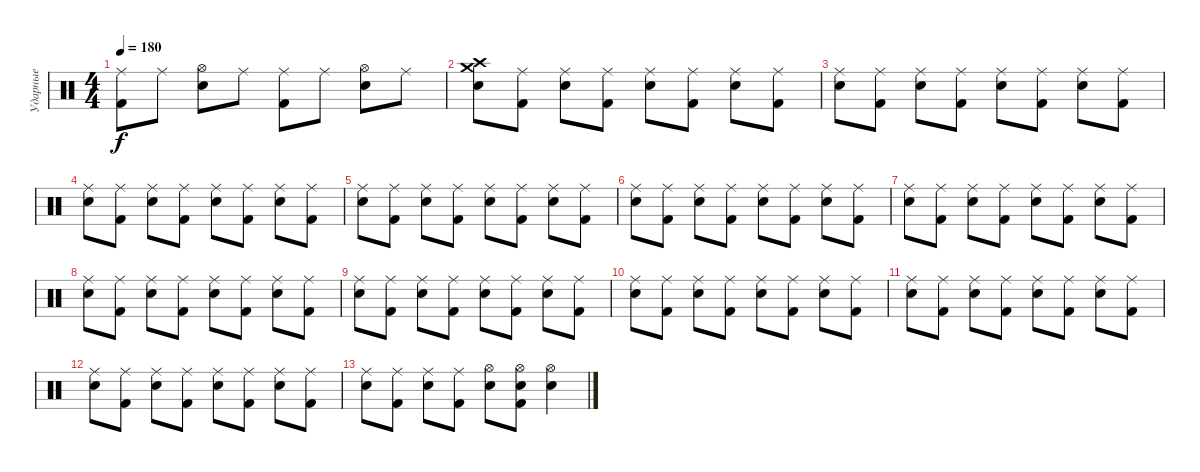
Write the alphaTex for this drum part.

\track ("Ударные" "Ударные") {instrument percussion}
\staff {score}
\articulation defaults
\ts (4 4)
\tempo 180
\clef neutral
\ks c
("Ride (middle)" "Kick (hit) 2").8{dy f} "Ride (middle)".8 ("Hi-Hat (open)" "Snare (hit) 2").8 "Ride (middle)".8 ("Ride (middle)" "Kick (hit) 2").8 "Ride (middle)".8 ("Hi-Hat (open)" "Snare (hit) 2").8 "Ride (middle)".8 |
("Crash high (hit)" "Snare (hit) 2" "Crash medium (hit)").8 ("Ride (middle)" "Kick (hit) 2").8 ("Ride (middle)" "Snare (hit) 2").8 ("Ride (middle)" "Kick (hit) 2").8 ("Ride (middle)" "Snare (hit) 2").8 ("Ride (middle)" "Kick (hit) 2").8 ("Ride (middle)" "Snare (hit) 2").8 ("Ride (middle)" "Kick (hit) 2").8 |
("Ride (middle)" "Snare (hit) 2").8 ("Ride (middle)" "Kick (hit) 2").8 ("Ride (middle)" "Snare (hit) 2").8 ("Ride (middle)" "Kick (hit) 2").8 ("Ride (middle)" "Snare (hit) 2").8 ("Ride (middle)" "Kick (hit) 2").8 ("Ride (middle)" "Snare (hit) 2").8 ("Ride (middle)" "Kick (hit) 2").8 |
("Ride (middle)" "Snare (hit) 2").8 ("Ride (middle)" "Kick (hit) 2").8 ("Ride (middle)" "Snare (hit) 2").8 ("Ride (middle)" "Kick (hit) 2").8 ("Ride (middle)" "Snare (hit) 2").8 ("Ride (middle)" "Kick (hit) 2").8 ("Ride (middle)" "Snare (hit) 2").8 ("Ride (middle)" "Kick (hit) 2").8 |
("Ride (middle)" "Snare (hit) 2").8 ("Ride (middle)" "Kick (hit) 2").8 ("Ride (middle)" "Snare (hit) 2").8 ("Ride (middle)" "Kick (hit) 2").8 ("Ride (middle)" "Snare (hit) 2").8 ("Ride (middle)" "Kick (hit) 2").8 ("Ride (middle)" "Snare (hit) 2").8 ("Ride (middle)" "Kick (hit) 2").8 |
("Ride (middle)" "Snare (hit) 2").8 ("Ride (middle)" "Kick (hit) 2").8 ("Ride (middle)" "Snare (hit) 2").8 ("Ride (middle)" "Kick (hit) 2").8 ("Ride (middle)" "Snare (hit) 2").8 ("Ride (middle)" "Kick (hit) 2").8 ("Ride (middle)" "Snare (hit) 2").8 ("Ride (middle)" "Kick (hit) 2").8 |
("Ride (middle)" "Snare (hit) 2").8 ("Ride (middle)" "Kick (hit) 2").8 ("Ride (middle)" "Snare (hit) 2").8 ("Ride (middle)" "Kick (hit) 2").8 ("Ride (middle)" "Snare (hit) 2").8 ("Ride (middle)" "Kick (hit) 2").8 ("Ride (middle)" "Snare (hit) 2").8 ("Ride (middle)" "Kick (hit) 2").8 |
("Ride (middle)" "Snare (hit) 2").8 ("Ride (middle)" "Kick (hit) 2").8 ("Ride (middle)" "Snare (hit) 2").8 ("Ride (middle)" "Kick (hit) 2").8 ("Ride (middle)" "Snare (hit) 2").8 ("Ride (middle)" "Kick (hit) 2").8 ("Ride (middle)" "Snare (hit) 2").8 ("Ride (middle)" "Kick (hit) 2").8 |
("Ride (middle)" "Snare (hit) 2").8 ("Ride (middle)" "Kick (hit) 2").8 ("Ride (middle)" "Snare (hit) 2").8 ("Ride (middle)" "Kick (hit) 2").8 ("Ride (middle)" "Snare (hit) 2").8 ("Ride (middle)" "Kick (hit) 2").8 ("Ride (middle)" "Snare (hit) 2").8 ("Ride (middle)" "Kick (hit) 2").8 |
("Ride (middle)" "Snare (hit) 2").8 ("Ride (middle)" "Kick (hit) 2").8 ("Ride (middle)" "Snare (hit) 2").8 ("Ride (middle)" "Kick (hit) 2").8 ("Ride (middle)" "Snare (hit) 2").8 ("Ride (middle)" "Kick (hit) 2").8 ("Ride (middle)" "Snare (hit) 2").8 ("Ride (middle)" "Kick (hit) 2").8 |
("Ride (middle)" "Snare (hit) 2").8 ("Ride (middle)" "Kick (hit) 2").8 ("Ride (middle)" "Snare (hit) 2").8 ("Ride (middle)" "Kick (hit) 2").8 ("Ride (middle)" "Snare (hit) 2").8 ("Ride (middle)" "Kick (hit) 2").8 ("Ride (middle)" "Snare (hit) 2").8 ("Ride (middle)" "Kick (hit) 2").8 |
("Ride (middle)" "Snare (hit) 2").8 ("Ride (middle)" "Kick (hit) 2").8 ("Ride (middle)" "Snare (hit) 2").8 ("Ride (middle)" "Kick (hit) 2").8 ("Ride (middle)" "Snare (hit) 2").8 ("Ride (middle)" "Kick (hit) 2").8 ("Ride (middle)" "Snare (hit) 2").8 ("Ride (middle)" "Kick (hit) 2").8 |
("Ride (middle)" "Snare (hit) 2").8 ("Ride (middle)" "Kick (hit) 2").8 ("Ride (middle)" "Snare (hit) 2").8 ("Ride (middle)" "Kick (hit) 2").8 ("Hi-Hat (open)" "Snare (hit) 2").8 ("Hi-Hat (open)" "Snare (hit) 2" "Kick (hit) 2").8 ("Hi-Hat (open)" "Snare (hit) 2").4
